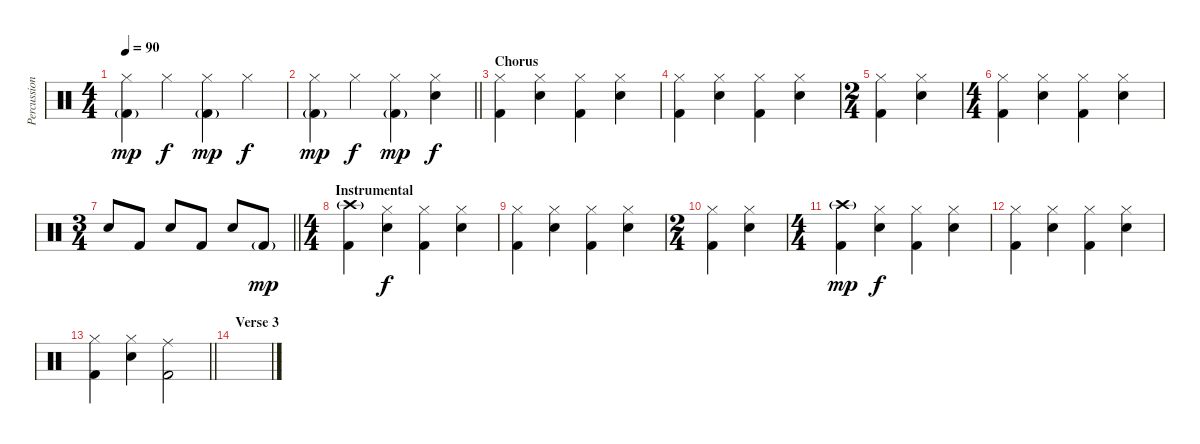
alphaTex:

\track ("Percussion" "Percussion") {instrument percussion}
\staff {score}
\articulation defaults
\ts (4 4)
\tempo 90
\clef neutral
\ks c
("Hi-Hat (closed)" "Kick (hit) 2"{g}).4{dy mp} "Hi-Hat (closed)".4{dy f} ("Hi-Hat (closed)" "Kick (hit) 2"{g}).4{dy mp} "Hi-Hat (closed)".4{dy f} |
\barLineRight lightlight
("Hi-Hat (closed)" "Kick (hit) 2"{g}).4{dy mp} "Hi-Hat (closed)".4{dy f} ("Hi-Hat (closed)" "Kick (hit) 2"{g}).4{dy mp} ("Hi-Hat (closed)" "Snare (hit) 2").4{dy f} |
\section ("" "Chorus")
("Hi-Hat (closed)" "Kick (hit) 2").4 ("Hi-Hat (closed)" "Snare (hit) 2").4 ("Hi-Hat (closed)" "Kick (hit) 2").4 ("Hi-Hat (closed)" "Snare (hit) 2").4 |
("Hi-Hat (closed)" "Kick (hit) 2").4 ("Hi-Hat (closed)" "Snare (hit) 2").4 ("Hi-Hat (closed)" "Kick (hit) 2").4 ("Hi-Hat (closed)" "Snare (hit) 2").4 |
\ts (2 4)
("Hi-Hat (closed)" "Kick (hit) 2").4 ("Hi-Hat (closed)" "Snare (hit) 2").4 |
\ts (4 4)
("Hi-Hat (closed)" "Kick (hit) 2").4 ("Hi-Hat (closed)" "Snare (hit) 2").4 ("Hi-Hat (closed)" "Kick (hit) 2").4 ("Hi-Hat (closed)" "Snare (hit) 2").4 |
\ts (3 4)
\barLineRight lightlight "Snare (hit) 2".8 "Kick (hit) 2".8 "Snare (hit) 2".8 "Kick (hit) 2".8 "Snare (hit) 2".8 "Kick (hit) 2"{g}.8{dy mp}
|
\ts (4 4)
\section ("" "Instrumental")
("Crash high (hit)"{g} "Kick (hit) 2").4 ("Hi-Hat (closed)" "Snare (hit) 2").4{dy f} ("Hi-Hat (closed)" "Kick (hit) 2").4 ("Hi-Hat (closed)" "Snare (hit) 2").4 |
("Hi-Hat (closed)" "Kick (hit) 2").4 ("Hi-Hat (closed)" "Snare (hit) 2").4 ("Hi-Hat (closed)" "Kick (hit) 2").4 ("Hi-Hat (closed)" "Snare (hit) 2").4 |
\ts (2 4)
("Hi-Hat (closed)" "Kick (hit) 2").4 ("Hi-Hat (closed)" "Snare (hit) 2").4 |
\ts (4 4)
("Crash high (hit)"{g} "Kick (hit) 2").4{dy mp} ("Hi-Hat (closed)" "Snare (hit) 2").4{dy f} ("Hi-Hat (closed)" "Kick (hit) 2").4 ("Hi-Hat (closed)" "Snare (hit) 2").4 |
("Hi-Hat (closed)" "Kick (hit) 2").4 ("Hi-Hat (closed)" "Snare (hit) 2").4 ("Hi-Hat (closed)" "Kick (hit) 2").4 ("Hi-Hat (closed)" "Snare (hit) 2").4 |
\barLineRight lightlight
("Hi-Hat (closed)" "Kick (hit) 2").4 ("Hi-Hat (closed)" "Snare (hit) 2").4 ("Ride (middle)" "Kick (hit) 2").2 |
\section ("" "Verse 3")
